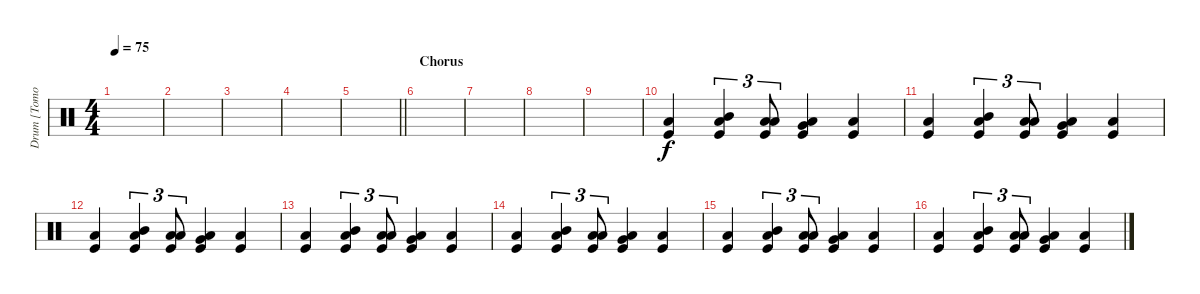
\track ("Drum [Tomoya]" "Drum [Tomo") {instrument percussion}
\staff {score}
\articulation defaults
\ts (4 4)
\tempo 75
\clef neutral
\ks c
|
|
|
|
\barLineRight lightlight
|
\section ("" "Chorus")
|
|
|
|
("Low Floor Tom (hit)" "Kick (hit)").4 ("Mid Tom (hit)" "Kick (hit)" "Low Floor Tom (hit)").4{tu (3 2)} ("Low Tom (hit)" "Kick (hit)" "Low Floor Tom (hit)").8{tu (3 2)} ("Very Low Tom (hit)" "Kick (hit)" "Low Floor Tom (hit)").4 ("Low Floor Tom (hit)" "Kick (hit)").4 |
("Low Floor Tom (hit)" "Kick (hit)").4 ("Mid Tom (hit)" "Kick (hit)" "Low Floor Tom (hit)").4{tu (3 2)} ("Low Tom (hit)" "Kick (hit)" "Low Floor Tom (hit)").8{tu (3 2)} ("Very Low Tom (hit)" "Kick (hit)" "Low Floor Tom (hit)").4 ("Low Floor Tom (hit)" "Kick (hit)").4 |
("Low Floor Tom (hit)" "Kick (hit)").4 ("Mid Tom (hit)" "Kick (hit)" "Low Floor Tom (hit)").4{tu (3 2)} ("Low Tom (hit)" "Kick (hit)" "Low Floor Tom (hit)").8{tu (3 2)} ("Very Low Tom (hit)" "Kick (hit)" "Low Floor Tom (hit)").4 ("Low Floor Tom (hit)" "Kick (hit)").4 |
("Low Floor Tom (hit)" "Kick (hit)").4 ("Mid Tom (hit)" "Kick (hit)" "Low Floor Tom (hit)").4{tu (3 2)} ("Low Tom (hit)" "Kick (hit)" "Low Floor Tom (hit)").8{tu (3 2)} ("Very Low Tom (hit)" "Kick (hit)" "Low Floor Tom (hit)").4 ("Low Floor Tom (hit)" "Kick (hit)").4 |
("Low Floor Tom (hit)" "Kick (hit)").4 ("Mid Tom (hit)" "Kick (hit)" "Low Floor Tom (hit)").4{tu (3 2)} ("Low Tom (hit)" "Kick (hit)" "Low Floor Tom (hit)").8{tu (3 2)} ("Very Low Tom (hit)" "Kick (hit)" "Low Floor Tom (hit)").4 ("Low Floor Tom (hit)" "Kick (hit)").4 |
("Low Floor Tom (hit)" "Kick (hit)").4 ("Mid Tom (hit)" "Kick (hit)" "Low Floor Tom (hit)").4{tu (3 2)} ("Low Tom (hit)" "Kick (hit)" "Low Floor Tom (hit)").8{tu (3 2)} ("Very Low Tom (hit)" "Kick (hit)" "Low Floor Tom (hit)").4 ("Low Floor Tom (hit)" "Kick (hit)").4 |
("Low Floor Tom (hit)" "Kick (hit)").4 ("Mid Tom (hit)" "Kick (hit)" "Low Floor Tom (hit)").4{tu (3 2)} ("Low Tom (hit)" "Kick (hit)" "Low Floor Tom (hit)").8{tu (3 2)} ("Very Low Tom (hit)" "Kick (hit)" "Low Floor Tom (hit)").4 ("Low Floor Tom (hit)" "Kick (hit)").4
